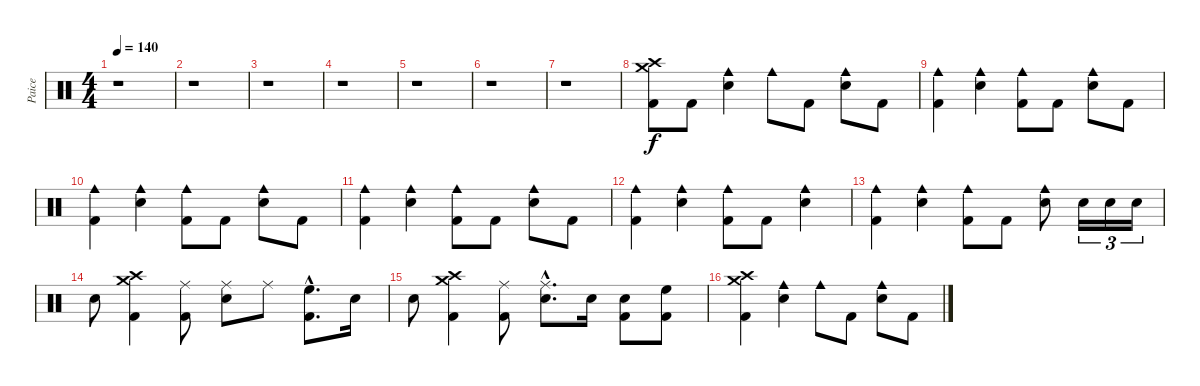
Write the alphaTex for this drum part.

\track ("Paice" "Paice") {instrument percussion}
\staff {score}
\articulation defaults
\ts (4 4)
\tempo 140
\clef neutral
\ks c
r.1{dy f} |
r.1 |
r.1 |
r.1 |
r.1 |
r.1 |
r.1 |
("Crash high (hit)" "Crash medium (hit)" "Kick (hit) 2").8 "Kick (hit) 2".8 ("Cowbell medium (hit)" "Electric Snare (hit)").4 "Cowbell medium (hit)".8 "Kick (hit) 2".8 ("Cowbell medium (hit)" "Electric Snare (hit)").8 "Kick (hit) 2".8 |
("Cowbell medium (hit)" "Kick (hit) 2").4 ("Cowbell medium (hit)" "Electric Snare (hit)").4 ("Cowbell medium (hit)" "Kick (hit) 2").8 "Kick (hit) 2".8 ("Cowbell medium (hit)" "Electric Snare (hit)").8 "Kick (hit) 2".8 |
("Cowbell medium (hit)" "Kick (hit) 2").4 ("Cowbell medium (hit)" "Electric Snare (hit)").4 ("Cowbell medium (hit)" "Kick (hit) 2").8 "Kick (hit) 2".8 ("Cowbell medium (hit)" "Electric Snare (hit)").8 "Kick (hit) 2".8 |
("Cowbell medium (hit)" "Kick (hit) 2").4 ("Cowbell medium (hit)" "Electric Snare (hit)").4 ("Cowbell medium (hit)" "Kick (hit) 2").8 "Kick (hit) 2".8 ("Cowbell medium (hit)" "Electric Snare (hit)").8 "Kick (hit) 2".8 |
("Cowbell medium (hit)" "Kick (hit) 2").4 ("Cowbell medium (hit)" "Electric Snare (hit)").4 ("Cowbell medium (hit)" "Kick (hit) 2").8 "Kick (hit) 2".8 ("Cowbell medium (hit)" "Electric Snare (hit)").4 |
("Cowbell medium (hit)" "Kick (hit) 2").4 ("Cowbell medium (hit)" "Electric Snare (hit)").4 ("Cowbell medium (hit)" "Kick (hit) 2").8 "Kick (hit) 2".8 ("Cowbell medium (hit)" "Electric Snare (hit)").8 "Electric Snare (hit)".16{tu (3 2)} "Electric Snare (hit)".16{tu (3 2)} "Electric Snare (hit)".16{tu (3 2)} |
"Electric Snare (hit)".8 ("Crash high (hit)" "Crash medium (hit)" "Kick (hit) 2").4 ("Ride (middle)" "Kick (hit) 2").8 ("Ride (middle)" "Electric Snare (hit)").8 "Ride (middle)".8 ("High Floor Tom (hit)"{hac} "Kick (hit) 2"{hac}).8{d} "Electric Snare (hit)".16 |
"Electric Snare (hit)".8 ("Crash high (hit)" "Crash medium (hit)" "Kick (hit) 2").4 ("Ride (middle)" "Kick (hit) 2").8 ("Ride (middle)"{hac} "Electric Snare (hit)"{hac}).8{d} "Electric Snare (hit)".16 ("Electric Snare (hit)" "Kick (hit) 2").8 ("High Floor Tom (hit)" "Kick (hit) 2").8 |
("Crash high (hit)" "Crash medium (hit)" "Kick (hit) 2").4 ("Cowbell medium (hit)" "Electric Snare (hit)").4 "Cowbell medium (hit)".8 "Kick (hit) 2".8 ("Cowbell medium (hit)" "Electric Snare (hit)").8 "Kick (hit) 2".8
